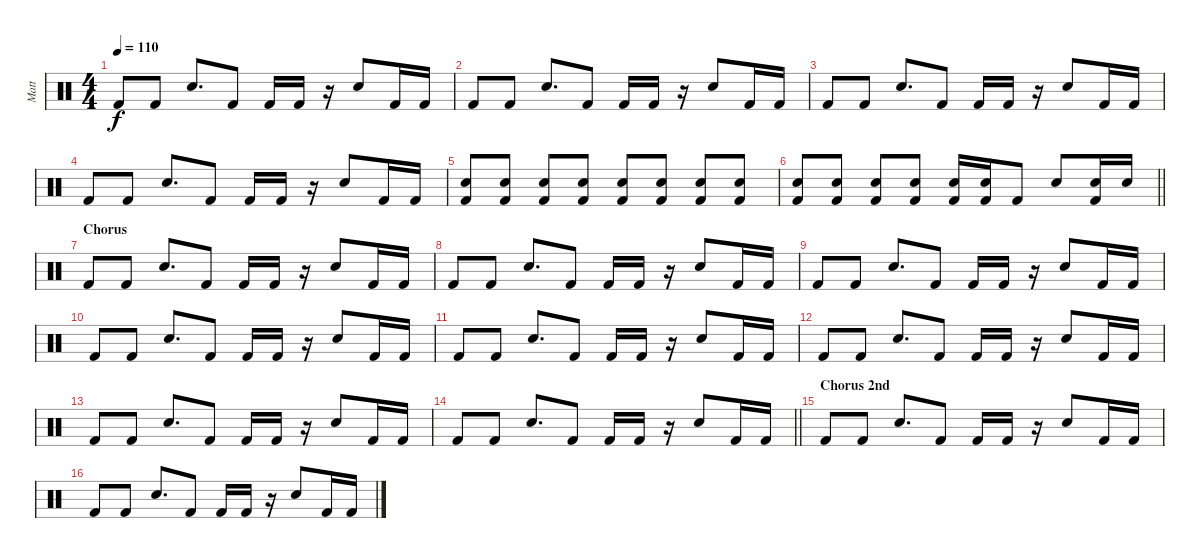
\track ("Matt" "Matt") {instrument percussion}
\staff {score}
\articulation defaults
\ts (4 4)
\tempo 110
\clef neutral
\ks c "Kick (hit) 2".8{dy f} "Kick (hit) 2".8 "Snare (hit) 2".8{d} "Kick (hit) 2".8 "Kick (hit) 2".16 "Kick (hit) 2".16
r.16 "Snare (hit) 2".8 "Kick (hit) 2".16 "Kick (hit) 2".16 |
"Kick (hit) 2".8 "Kick (hit) 2".8 "Snare (hit) 2".8{d} "Kick (hit) 2".8 "Kick (hit) 2".16 "Kick (hit) 2".16 r.16 "Snare (hit) 2".8 "Kick (hit) 2".16 "Kick (hit) 2".16 |
"Kick (hit) 2".8 "Kick (hit) 2".8 "Snare (hit) 2".8{d} "Kick (hit) 2".8 "Kick (hit) 2".16 "Kick (hit) 2".16 r.16 "Snare (hit) 2".8 "Kick (hit) 2".16 "Kick (hit) 2".16 |
"Kick (hit) 2".8 "Kick (hit) 2".8 "Snare (hit) 2".8{d} "Kick (hit) 2".8 "Kick (hit) 2".16 "Kick (hit) 2".16 r.16 "Snare (hit) 2".8 "Kick (hit) 2".16 "Kick (hit) 2".16 |
("Snare (hit) 2" "Kick (hit) 2").8 ("Snare (hit) 2" "Kick (hit) 2").8 ("Snare (hit) 2" "Kick (hit) 2").8 ("Snare (hit) 2" "Kick (hit) 2").8 ("Snare (hit) 2" "Kick (hit) 2").8 ("Snare (hit) 2" "Kick (hit) 2").8 ("Snare (hit) 2" "Kick (hit) 2").8 ("Snare (hit) 2" "Kick (hit) 2").8 |
\barLineRight lightlight
("Snare (hit) 2" "Kick (hit) 2").8 ("Snare (hit) 2" "Kick (hit) 2").8 ("Snare (hit) 2" "Kick (hit) 2").8 ("Snare (hit) 2" "Kick (hit) 2").8 ("Snare (hit) 2" "Kick (hit) 2").16 ("Snare (hit) 2" "Kick (hit) 2").16 "Kick (hit) 2".8 "Snare (hit) 2".8 ("Snare (hit) 2" "Kick (hit) 2").16 "Snare (hit) 2".16 |
\section ("" "Chorus")
"Kick (hit) 2".8 "Kick (hit) 2".8 "Snare (hit) 2".8{d} "Kick (hit) 2".8 "Kick (hit) 2".16 "Kick (hit) 2".16 r.16 "Snare (hit) 2".8 "Kick (hit) 2".16 "Kick (hit) 2".16 |
"Kick (hit) 2".8 "Kick (hit) 2".8 "Snare (hit) 2".8{d} "Kick (hit) 2".8 "Kick (hit) 2".16 "Kick (hit) 2".16 r.16 "Snare (hit) 2".8 "Kick (hit) 2".16 "Kick (hit) 2".16 |
"Kick (hit) 2".8 "Kick (hit) 2".8 "Snare (hit) 2".8{d} "Kick (hit) 2".8 "Kick (hit) 2".16 "Kick (hit) 2".16 r.16 "Snare (hit) 2".8 "Kick (hit) 2".16 "Kick (hit) 2".16 |
"Kick (hit) 2".8 "Kick (hit) 2".8 "Snare (hit) 2".8{d} "Kick (hit) 2".8 "Kick (hit) 2".16 "Kick (hit) 2".16 r.16 "Snare (hit) 2".8 "Kick (hit) 2".16 "Kick (hit) 2".16 |
"Kick (hit) 2".8 "Kick (hit) 2".8 "Snare (hit) 2".8{d} "Kick (hit) 2".8 "Kick (hit) 2".16 "Kick (hit) 2".16 r.16 "Snare (hit) 2".8 "Kick (hit) 2".16 "Kick (hit) 2".16 |
"Kick (hit) 2".8 "Kick (hit) 2".8 "Snare (hit) 2".8{d} "Kick (hit) 2".8 "Kick (hit) 2".16 "Kick (hit) 2".16 r.16 "Snare (hit) 2".8 "Kick (hit) 2".16 "Kick (hit) 2".16 |
"Kick (hit) 2".8 "Kick (hit) 2".8 "Snare (hit) 2".8{d} "Kick (hit) 2".8 "Kick (hit) 2".16 "Kick (hit) 2".16 r.16 "Snare (hit) 2".8 "Kick (hit) 2".16 "Kick (hit) 2".16 |
\barLineRight lightlight "Kick (hit) 2".8 "Kick (hit) 2".8 "Snare (hit) 2".8{d} "Kick (hit) 2".8 "Kick (hit) 2".16 "Kick (hit) 2".16
r.16 "Snare (hit) 2".8 "Kick (hit) 2".16 "Kick (hit) 2".16 |
\section ("" "Chorus 2nd")
"Kick (hit) 2".8 "Kick (hit) 2".8 "Snare (hit) 2".8{d} "Kick (hit) 2".8 "Kick (hit) 2".16 "Kick (hit) 2".16 r.16 "Snare (hit) 2".8 "Kick (hit) 2".16 "Kick (hit) 2".16 |
"Kick (hit) 2".8 "Kick (hit) 2".8 "Snare (hit) 2".8{d} "Kick (hit) 2".8 "Kick (hit) 2".16 "Kick (hit) 2".16 r.16 "Snare (hit) 2".8 "Kick (hit) 2".16 "Kick (hit) 2".16
